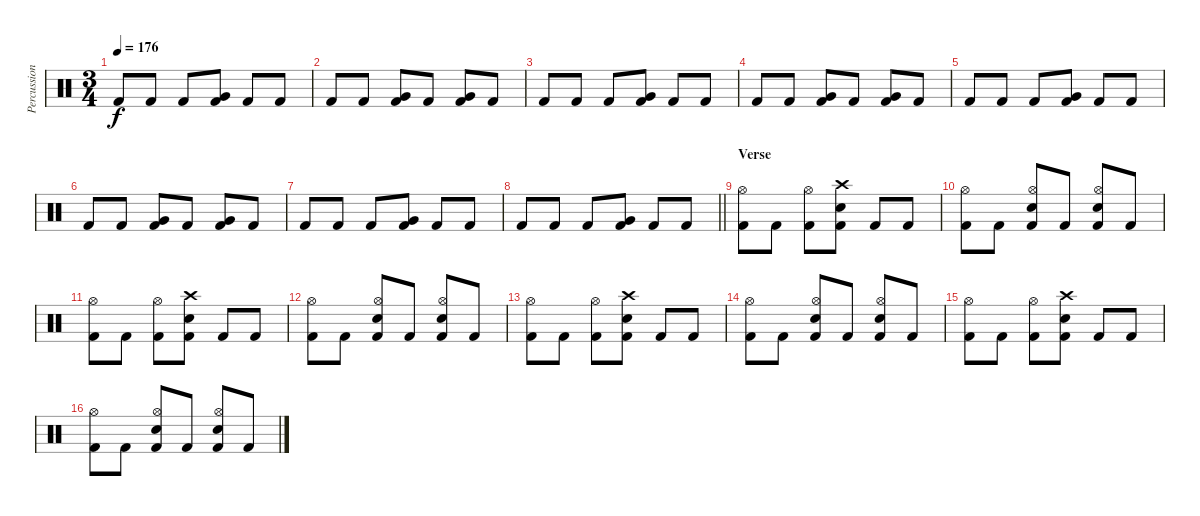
\track ("Percussion" "Percussion") {instrument percussion}
\staff {score}
\articulation defaults
\ts (3 4)
\tempo 176
\clef neutral
\ks c "Kick (hit) 2".8{dy f} "Kick (hit) 2".8 "Kick (hit) 2".8
("Very Low Tom (hit)" "Kick (hit) 2").8 "Kick (hit) 2".8 "Kick (hit) 2".8 |
"Kick (hit) 2".8 "Kick (hit) 2".8 ("Very Low Tom (hit)" "Kick (hit) 2").8 "Kick (hit) 2".8 ("Very Low Tom (hit)" "Kick (hit) 2").8 "Kick (hit) 2".8 |
"Kick (hit) 2".8 "Kick (hit) 2".8 "Kick (hit) 2".8 ("Very Low Tom (hit)" "Kick (hit) 2").8 "Kick (hit) 2".8 "Kick (hit) 2".8 |
"Kick (hit) 2".8 "Kick (hit) 2".8 ("Very Low Tom (hit)" "Kick (hit) 2").8 "Kick (hit) 2".8 ("Very Low Tom (hit)" "Kick (hit) 2").8 "Kick (hit) 2".8 |
"Kick (hit) 2".8 "Kick (hit) 2".8 "Kick (hit) 2".8 ("Very Low Tom (hit)" "Kick (hit) 2").8 "Kick (hit) 2".8 "Kick (hit) 2".8 |
"Kick (hit) 2".8 "Kick (hit) 2".8 ("Very Low Tom (hit)" "Kick (hit) 2").8 "Kick (hit) 2".8 ("Very Low Tom (hit)" "Kick (hit) 2").8 "Kick (hit) 2".8 |
"Kick (hit) 2".8 "Kick (hit) 2".8 "Kick (hit) 2".8 ("Very Low Tom (hit)" "Kick (hit) 2").8 "Kick (hit) 2".8 "Kick (hit) 2".8 |
\barLineRight lightlight "Kick (hit) 2".8 "Kick (hit) 2".8 "Kick (hit) 2".8
("Very Low Tom (hit)" "Kick (hit) 2").8 "Kick (hit) 2".8 "Kick (hit) 2".8 |
\section ("" "Verse")
("Hi-Hat (open)" "Kick (hit) 2").8 "Kick (hit) 2".8 ("Hi-Hat (open)" "Kick (hit) 2").8 ("Crash high (hit)" "Electric Snare (hit)" "Kick (hit) 2").8 "Kick (hit) 2".8 "Kick (hit) 2".8 |
("Hi-Hat (open)" "Kick (hit) 2").8 "Kick (hit) 2".8 ("Hi-Hat (open)" "Electric Snare (hit)" "Kick (hit) 2").8 "Kick (hit) 2".8 ("Hi-Hat (open)" "Electric Snare (hit)" "Kick (hit) 2").8 "Kick (hit) 2".8 |
("Hi-Hat (open)" "Kick (hit) 2").8 "Kick (hit) 2".8 ("Hi-Hat (open)" "Kick (hit) 2").8 ("Crash high (hit)" "Electric Snare (hit)" "Kick (hit) 2").8 "Kick (hit) 2".8 "Kick (hit) 2".8 |
("Hi-Hat (open)" "Kick (hit) 2").8 "Kick (hit) 2".8 ("Hi-Hat (open)" "Electric Snare (hit)" "Kick (hit) 2").8 "Kick (hit) 2".8 ("Hi-Hat (open)" "Electric Snare (hit)" "Kick (hit) 2").8 "Kick (hit) 2".8 |
("Hi-Hat (open)" "Kick (hit) 2").8 "Kick (hit) 2".8 ("Hi-Hat (open)" "Kick (hit) 2").8 ("Crash high (hit)" "Electric Snare (hit)" "Kick (hit) 2").8 "Kick (hit) 2".8 "Kick (hit) 2".8 |
("Hi-Hat (open)" "Kick (hit) 2").8 "Kick (hit) 2".8 ("Hi-Hat (open)" "Electric Snare (hit)" "Kick (hit) 2").8 "Kick (hit) 2".8 ("Hi-Hat (open)" "Electric Snare (hit)" "Kick (hit) 2").8 "Kick (hit) 2".8 |
("Hi-Hat (open)" "Kick (hit) 2").8 "Kick (hit) 2".8 ("Hi-Hat (open)" "Kick (hit) 2").8 ("Crash high (hit)" "Electric Snare (hit)" "Kick (hit) 2").8 "Kick (hit) 2".8 "Kick (hit) 2".8 |
("Hi-Hat (open)" "Kick (hit) 2").8 "Kick (hit) 2".8 ("Hi-Hat (open)" "Electric Snare (hit)" "Kick (hit) 2").8 "Kick (hit) 2".8 ("Hi-Hat (open)" "Electric Snare (hit)" "Kick (hit) 2").8 "Kick (hit) 2".8
